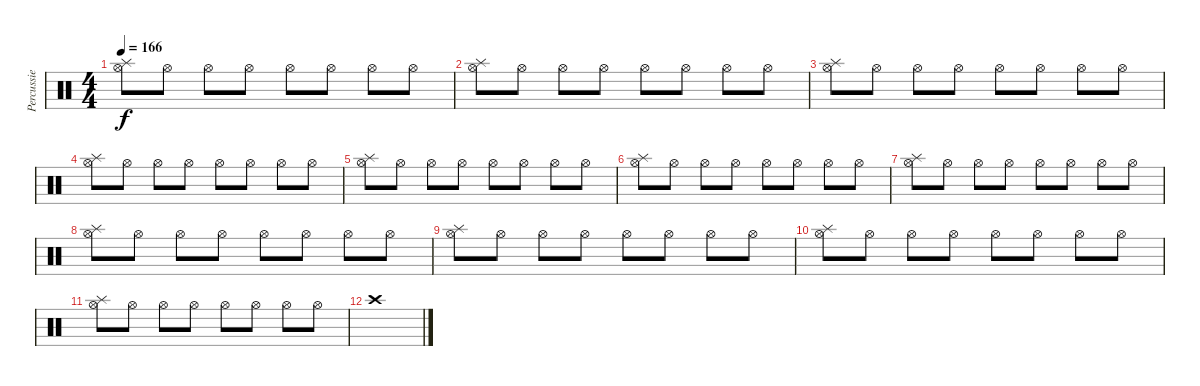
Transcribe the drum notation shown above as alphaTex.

\track ("Percussie" "Percussie") {instrument percussion}
\staff {score}
\articulation defaults
\ts (4 4)
\tempo 166
\clef neutral
\ks c
("Hi-Hat (open)" "Splash (hit)").8{dy f} "Hi-Hat (open)".8 "Hi-Hat (open)".8 "Hi-Hat (open)".8 "Hi-Hat (open)".8 "Hi-Hat (open)".8 "Hi-Hat (open)".8 "Hi-Hat (open)".8 |
("Hi-Hat (open)" "Splash (hit)").8 "Hi-Hat (open)".8 "Hi-Hat (open)".8 "Hi-Hat (open)".8 "Hi-Hat (open)".8 "Hi-Hat (open)".8 "Hi-Hat (open)".8 "Hi-Hat (open)".8 |
("Hi-Hat (open)" "Splash (hit)").8 "Hi-Hat (open)".8 "Hi-Hat (open)".8 "Hi-Hat (open)".8 "Hi-Hat (open)".8 "Hi-Hat (open)".8 "Hi-Hat (open)".8 "Hi-Hat (open)".8 |
("Hi-Hat (open)" "Splash (hit)").8 "Hi-Hat (open)".8 "Hi-Hat (open)".8 "Hi-Hat (open)".8 "Hi-Hat (open)".8 "Hi-Hat (open)".8 "Hi-Hat (open)".8 "Hi-Hat (open)".8 |
("Hi-Hat (open)" "Splash (hit)").8 "Hi-Hat (open)".8 "Hi-Hat (open)".8 "Hi-Hat (open)".8 "Hi-Hat (open)".8 "Hi-Hat (open)".8 "Hi-Hat (open)".8 "Hi-Hat (open)".8 |
("Hi-Hat (open)" "Splash (hit)").8 "Hi-Hat (open)".8 "Hi-Hat (open)".8 "Hi-Hat (open)".8 "Hi-Hat (open)".8 "Hi-Hat (open)".8 "Hi-Hat (open)".8 "Hi-Hat (open)".8 |
("Hi-Hat (open)" "Splash (hit)").8 "Hi-Hat (open)".8 "Hi-Hat (open)".8 "Hi-Hat (open)".8 "Hi-Hat (open)".8 "Hi-Hat (open)".8 "Hi-Hat (open)".8 "Hi-Hat (open)".8 |
("Hi-Hat (open)" "Splash (hit)").8 "Hi-Hat (open)".8 "Hi-Hat (open)".8 "Hi-Hat (open)".8 "Hi-Hat (open)".8 "Hi-Hat (open)".8 "Hi-Hat (open)".8 "Hi-Hat (open)".8 |
("Hi-Hat (open)" "Splash (hit)").8 "Hi-Hat (open)".8 "Hi-Hat (open)".8 "Hi-Hat (open)".8 "Hi-Hat (open)".8 "Hi-Hat (open)".8 "Hi-Hat (open)".8 "Hi-Hat (open)".8 |
("Hi-Hat (open)" "Splash (hit)").8 "Hi-Hat (open)".8 "Hi-Hat (open)".8 "Hi-Hat (open)".8 "Hi-Hat (open)".8 "Hi-Hat (open)".8 "Hi-Hat (open)".8 "Hi-Hat (open)".8 |
("Hi-Hat (open)" "Splash (hit)").8 "Hi-Hat (open)".8 "Hi-Hat (open)".8 "Hi-Hat (open)".8 "Hi-Hat (open)".8 "Hi-Hat (open)".8 "Hi-Hat (open)".8 "Hi-Hat (open)".8 |
"Crash high (hit)".1
